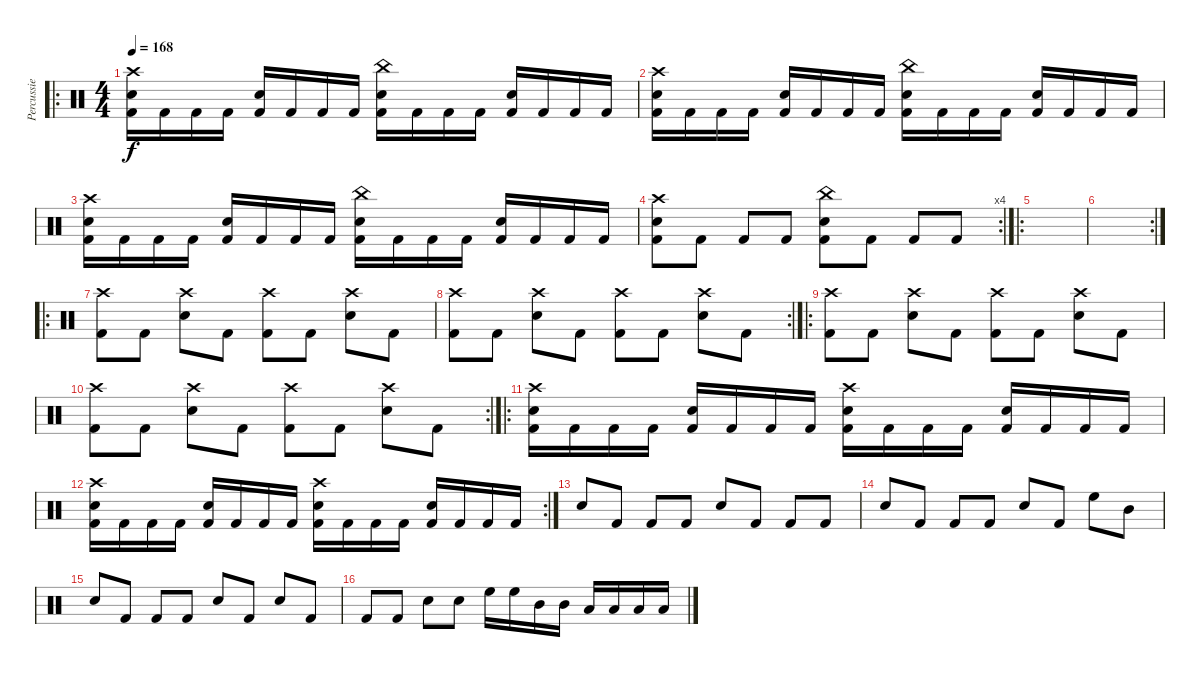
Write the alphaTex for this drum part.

\track ("Percussie" "Percussie") {instrument percussion}
\staff {score}
\articulation defaults
\ro
\ts (4 4)
\tempo 168
\clef neutral
\ks c
("Crash high (hit)" "Snare (hit) 2" "Kick (hit) 2").16{dy f} "Kick (hit) 2".16 "Kick (hit) 2".16 "Kick (hit) 2".16 ("Snare (hit) 2" "Kick (hit) 2").16 "Kick (hit) 2".16 "Kick (hit) 2".16 "Kick (hit) 2".16 ("China (hit)" "Snare (hit) 2" "Kick (hit) 2").16 "Kick (hit) 2".16 "Kick (hit) 2".16 "Kick (hit) 2".16 ("Snare (hit) 2" "Kick (hit) 2").16 "Kick (hit) 2".16 "Kick (hit) 2".16 "Kick (hit) 2".16 |
("Crash high (hit)" "Snare (hit) 2" "Kick (hit) 2").16 "Kick (hit) 2".16 "Kick (hit) 2".16 "Kick (hit) 2".16 ("Snare (hit) 2" "Kick (hit) 2").16 "Kick (hit) 2".16 "Kick (hit) 2".16 "Kick (hit) 2".16 ("China (hit)" "Snare (hit) 2" "Kick (hit) 2").16 "Kick (hit) 2".16 "Kick (hit) 2".16 "Kick (hit) 2".16 ("Snare (hit) 2" "Kick (hit) 2").16 "Kick (hit) 2".16 "Kick (hit) 2".16 "Kick (hit) 2".16 |
("Crash high (hit)" "Snare (hit) 2" "Kick (hit) 2").16 "Kick (hit) 2".16 "Kick (hit) 2".16 "Kick (hit) 2".16 ("Snare (hit) 2" "Kick (hit) 2").16 "Kick (hit) 2".16 "Kick (hit) 2".16 "Kick (hit) 2".16 ("China (hit)" "Snare (hit) 2" "Kick (hit) 2").16 "Kick (hit) 2".16 "Kick (hit) 2".16 "Kick (hit) 2".16 ("Snare (hit) 2" "Kick (hit) 2").16 "Kick (hit) 2".16 "Kick (hit) 2".16 "Kick (hit) 2".16 |
\rc 4
("Crash high (hit)" "Snare (hit) 2" "Kick (hit) 2").8 "Kick (hit) 2".8 "Kick (hit) 2".8 "Kick (hit) 2".8 ("China (hit)" "Snare (hit) 2" "Kick (hit) 2").8 "Kick (hit) 2".8 "Kick (hit) 2".8 "Kick (hit) 2".8 |
\ro
|
\rc 2
|
\ro
("Crash high (hit)" "Kick (hit) 2").8 "Kick (hit) 2".8 ("Crash high (hit)" "Snare (hit) 2").8 "Kick (hit) 2".8 ("Crash high (hit)" "Kick (hit) 2").8 "Kick (hit) 2".8 ("Crash high (hit)" "Snare (hit) 2").8 "Kick (hit) 2".8 |
\rc 2
("Crash high (hit)" "Kick (hit) 2").8 "Kick (hit) 2".8 ("Crash high (hit)" "Snare (hit) 2").8 "Kick (hit) 2".8 ("Crash high (hit)" "Kick (hit) 2").8 "Kick (hit) 2".8 ("Crash high (hit)" "Snare (hit) 2").8 "Kick (hit) 2".8 |
\ro
("Crash high (hit)" "Kick (hit) 2").8 "Kick (hit) 2".8 ("Crash high (hit)" "Snare (hit) 2").8 "Kick (hit) 2".8 ("Crash high (hit)" "Kick (hit) 2").8 "Kick (hit) 2".8 ("Crash high (hit)" "Snare (hit) 2").8 "Kick (hit) 2".8 |
\rc 2
("Crash high (hit)" "Kick (hit) 2").8 "Kick (hit) 2".8 ("Crash high (hit)" "Snare (hit) 2").8 "Kick (hit) 2".8 ("Crash high (hit)" "Kick (hit) 2").8 "Kick (hit) 2".8 ("Crash high (hit)" "Snare (hit) 2").8 "Kick (hit) 2".8 |
\ro
("Crash high (hit)" "Snare (hit) 2" "Kick (hit) 2").16 "Kick (hit) 2".16 "Kick (hit) 2".16 "Kick (hit) 2".16 ("Snare (hit) 2" "Kick (hit) 2").16 "Kick (hit) 2".16 "Kick (hit) 2".16 "Kick (hit) 2".16 ("Crash high (hit)" "Snare (hit) 2" "Kick (hit) 2").16 "Kick (hit) 2".16 "Kick (hit) 2".16 "Kick (hit) 2".16 ("Snare (hit) 2" "Kick (hit) 2").16 "Kick (hit) 2".16 "Kick (hit) 2".16 "Kick (hit) 2".16 |
\rc 2
("Crash high (hit)" "Snare (hit) 2" "Kick (hit) 2").16 "Kick (hit) 2".16 "Kick (hit) 2".16 "Kick (hit) 2".16 ("Snare (hit) 2" "Kick (hit) 2").16 "Kick (hit) 2".16 "Kick (hit) 2".16 "Kick (hit) 2".16 ("Crash high (hit)" "Snare (hit) 2" "Kick (hit) 2").16 "Kick (hit) 2".16 "Kick (hit) 2".16 "Kick (hit) 2".16 ("Snare (hit) 2" "Kick (hit) 2").16 "Kick (hit) 2".16 "Kick (hit) 2".16 "Kick (hit) 2".16 |
"Snare (hit) 2".8 "Kick (hit) 2".8 "Kick (hit) 2".8 "Kick (hit) 2".8 "Snare (hit) 2".8 "Kick (hit) 2".8 "Kick (hit) 2".8 "Kick (hit) 2".8 |
"Snare (hit) 2".8 "Kick (hit) 2".8 "Kick (hit) 2".8 "Kick (hit) 2".8 "Snare (hit) 2".8 "Kick (hit) 2".8 "High Floor Tom (hit)".8 "Mid Tom (hit)".8 |
"Snare (hit) 2".8 "Kick (hit) 2".8 "Kick (hit) 2".8 "Kick (hit) 2".8 "Snare (hit) 2".8 "Kick (hit) 2".8 "Snare (hit) 2".8 "Kick (hit) 2".8 |
"Kick (hit) 2".8 "Kick (hit) 2".8 "Snare (hit) 2".8 "Snare (hit) 2".8 "High Floor Tom (hit)".16 "High Floor Tom (hit)".16 "Mid Tom (hit)".16 "Mid Tom (hit)".16 "Low Tom (hit)".16 "Low Tom (hit)".16 "Low Floor Tom (hit)".16 "Low Floor Tom (hit)".16
